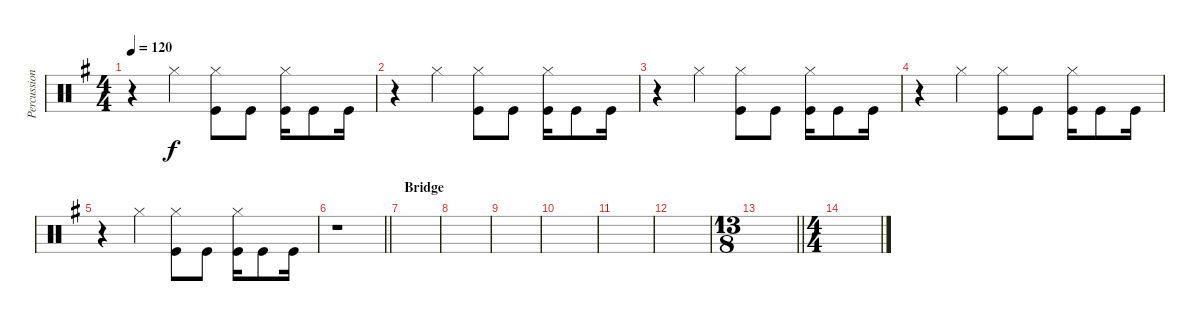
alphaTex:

\track ("Percussion" "Percussion") {instrument percussion}
\staff {score}
\articulation defaults
\ts (4 4)
\tempo 120
\clef neutral
\ks eminor
r.4{dy f} "Hi-Hat (closed)".4 ("Kick (hit)" "Hi-Hat (closed)").8 "Kick (hit)".8 ("Kick (hit)" "Hi-Hat (closed)").16 "Kick (hit)".8 "Kick (hit)".16 |
r.4 "Hi-Hat (closed)".4 ("Kick (hit)" "Hi-Hat (closed)").8 "Kick (hit)".8 ("Kick (hit)" "Hi-Hat (closed)").16 "Kick (hit)".8 "Kick (hit)".16 |
r.4 "Hi-Hat (closed)".4 ("Kick (hit)" "Hi-Hat (closed)").8 "Kick (hit)".8 ("Kick (hit)" "Hi-Hat (closed)").16 "Kick (hit)".8 "Kick (hit)".16 |
r.4 "Hi-Hat (closed)".4 ("Kick (hit)" "Hi-Hat (closed)").8 "Kick (hit)".8 ("Kick (hit)" "Hi-Hat (closed)").16 "Kick (hit)".8 "Kick (hit)".16 |
r.4 "Hi-Hat (closed)".4 ("Kick (hit)" "Hi-Hat (closed)").8 "Kick (hit)".8 ("Kick (hit)" "Hi-Hat (closed)").16 "Kick (hit)".8 "Kick (hit)".16 |
\barLineRight lightlight
r.1 |
\section ("" "Bridge")
|
|
|
|
|
|
\ts (13 8)
\barLineRight lightlight
|
\ts (4 4)
